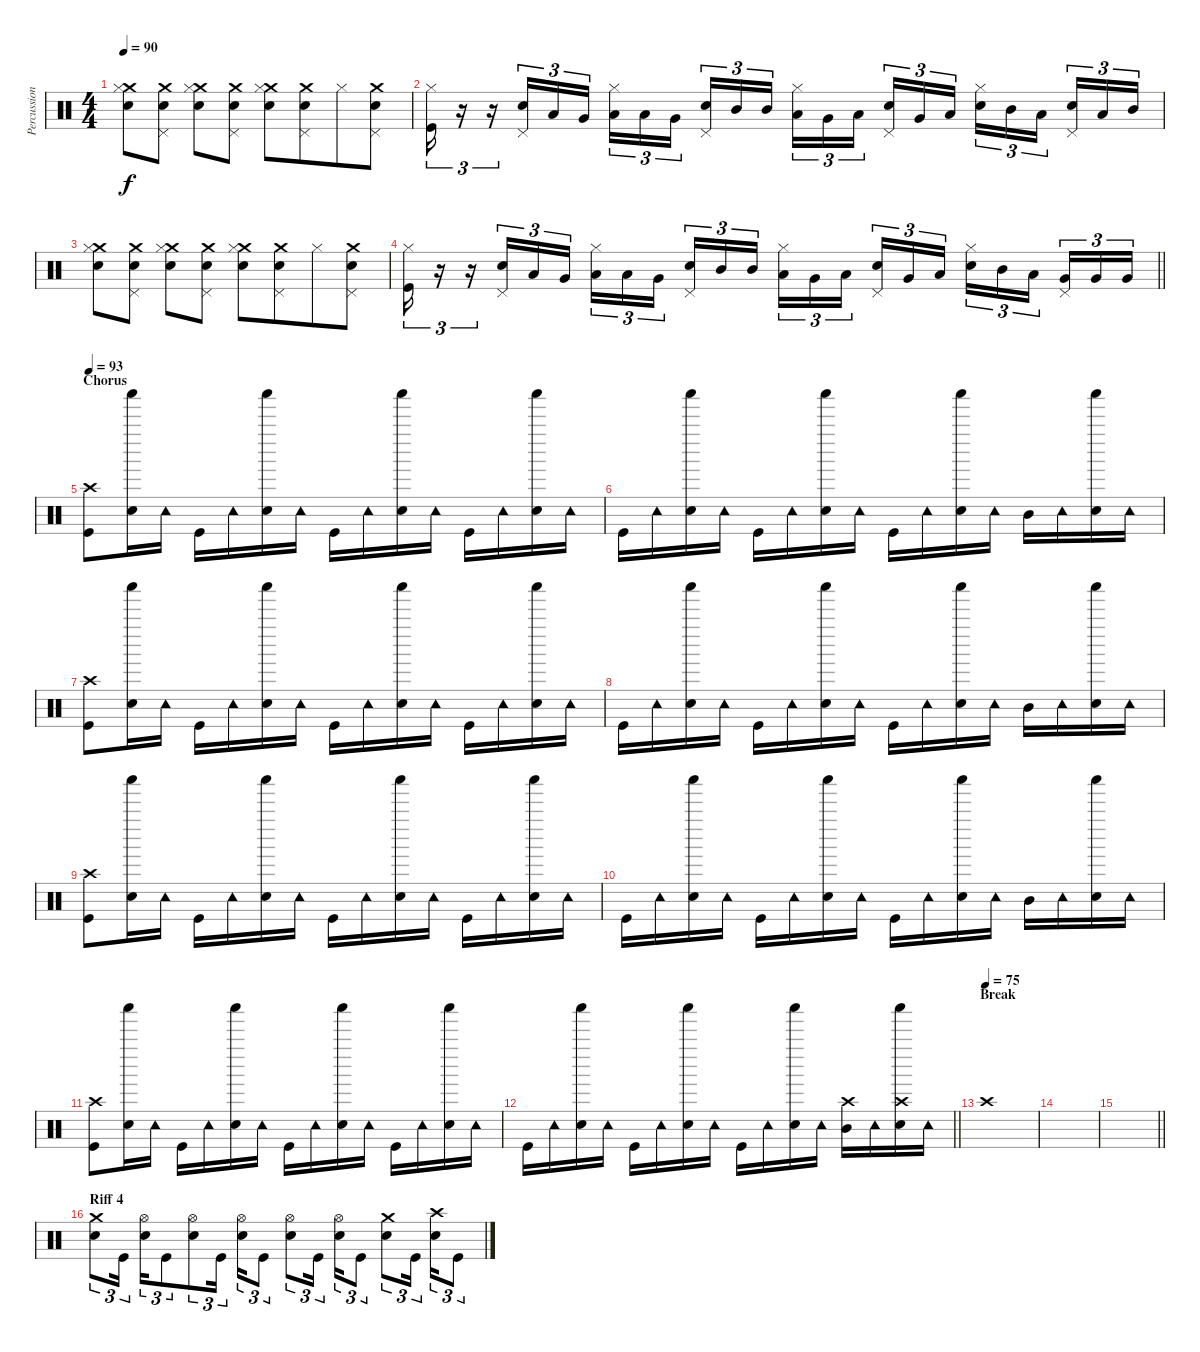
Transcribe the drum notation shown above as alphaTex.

\track ("Percussion" "Percussion") {instrument percussion}
\staff {score}
\articulation defaults
\ts (4 4)
\tempo 90
\clef neutral
\ks c
("Crash medium (hit)" "Hi-Hat (closed)" "Snare (hit) 2").8{dy f} ("Crash medium (hit)" "Pedal Hi-Hat (hit)" "Snare (hit) 2").8 ("Crash medium (hit)" "Hi-Hat (closed)" "Snare (hit) 2").8{beam merge} ("Crash medium (hit)" "Pedal Hi-Hat (hit)" "Snare (hit) 2").8 ("Crash medium (hit)" "Hi-Hat (closed)" "Snare (hit) 2").8 ("Crash medium (hit)" "Pedal Hi-Hat (hit)" "Snare (hit) 2").8{beam merge} "Hi-Hat (closed)".8 ("Crash medium (hit)" "Pedal Hi-Hat (hit)" "Snare (hit) 2").8 |
("Hi-Hat (closed)" "Kick (hit)").16{tu (3 2)} r.16{tu (3 2)} r.16{tu (3 2)} ("Pedal Hi-Hat (hit)" "Snare (hit) 2").16{tu (3 2) beam merge} "Low Tom (hit)".16{tu (3 2)} "Very Low Tom (hit)".16{tu (3 2)} ("Hi-Hat (closed)" "Low Floor Tom (hit)").16{tu (3 2) beam merge} "Low Floor Tom (hit)".16{tu (3 2)} "Very Low Tom (hit)".16{tu (3 2) beam splitsecondary} ("Pedal Hi-Hat (hit)" "Snare (hit) 2").16{tu (3 2)} "Mid Tom (hit)".16{tu (3 2)} "Mid Tom (hit)".16{tu (3 2)} ("Hi-Hat (closed)" "Low Tom (hit)").16{tu (3 2)} "Very Low Tom (hit)".16{tu (3 2)} "Low Floor Tom (hit)".16{tu (3 2) beam splitsecondary} ("Pedal Hi-Hat (hit)" "Snare (hit) 2").16{tu (3 2)} "Very Low Tom (hit)".16{tu (3 2) beam merge} "Low Tom (hit)".16{tu (3 2)} ("Hi-Hat (closed)" "Snare (hit) 2").16{tu (3 2)} "Mid Tom (hit)".16{tu (3 2)} "Low Tom (hit)".16{tu (3 2) beam splitsecondary} ("Pedal Hi-Hat (hit)" "Snare (hit) 2").16{tu (3 2)} "Low Tom (hit)".16{tu (3 2)} "Mid Tom (hit)".16{tu (3 2)} |
("Crash medium (hit)" "Hi-Hat (closed)" "Snare (hit) 2").8 ("Crash medium (hit)" "Pedal Hi-Hat (hit)" "Snare (hit) 2").8 ("Crash medium (hit)" "Hi-Hat (closed)" "Snare (hit) 2").8{beam merge} ("Crash medium (hit)" "Pedal Hi-Hat (hit)" "Snare (hit) 2").8 ("Crash medium (hit)" "Hi-Hat (closed)" "Snare (hit) 2").8 ("Crash medium (hit)" "Pedal Hi-Hat (hit)" "Snare (hit) 2").8{beam merge} "Hi-Hat (closed)".8 ("Crash medium (hit)" "Pedal Hi-Hat (hit)" "Snare (hit) 2").8 |
\barLineRight lightlight
("Hi-Hat (closed)" "Kick (hit)").16{tu (3 2)} r.16{tu (3 2)} r.16{tu (3 2)} ("Pedal Hi-Hat (hit)" "Snare (hit) 2").16{tu (3 2) beam merge} "Low Tom (hit)".16{tu (3 2)} "Very Low Tom (hit)".16{tu (3 2)} ("Hi-Hat (closed)" "Low Floor Tom (hit)").16{tu (3 2) beam merge} "Low Floor Tom (hit)".16{tu (3 2)} "Very Low Tom (hit)".16{tu (3 2) beam splitsecondary} ("Pedal Hi-Hat (hit)" "Snare (hit) 2").16{tu (3 2)} "Mid Tom (hit)".16{tu (3 2)} "Mid Tom (hit)".16{tu (3 2)} ("Hi-Hat (closed)" "Low Tom (hit)").16{tu (3 2)} "Very Low Tom (hit)".16{tu (3 2)} "Low Floor Tom (hit)".16{tu (3 2) beam splitsecondary} ("Pedal Hi-Hat (hit)" "Snare (hit) 2").16{tu (3 2)} "Very Low Tom (hit)".16{tu (3 2) beam merge} "Low Tom (hit)".16{tu (3 2)} ("Hi-Hat (closed)" "Snare (hit) 2").16{tu (3 2)} "Mid Tom (hit)".16{tu (3 2)} "Low Tom (hit)".16{tu (3 2) beam splitsecondary} ("Pedal Hi-Hat (hit)" "Very Low Tom (hit)").16{tu (3 2)} "Very Low Tom (hit)".16{tu (3 2)} "Very Low Tom (hit)".16{tu (3 2)} |
\section ("" "Chorus")
\tempo 93
("Crash high (hit)" "Kick (hit)").8 ("Shaker (hit)" "Electric Snare (hit)").16 "Tambourine (hit)".16 "Kick (hit)".16 "Tambourine (hit)".16 ("Shaker (hit)" "Electric Snare (hit)").16 "Tambourine (hit)".16 "Kick (hit)".16 "Tambourine (hit)".16 ("Shaker (hit)" "Electric Snare (hit)").16 "Tambourine (hit)".16 "Kick (hit)".16 "Tambourine (hit)".16 ("Shaker (hit)" "Electric Snare (hit)").16 "Tambourine (hit)".16 |
"Kick (hit)".16 "Tambourine (hit)".16 ("Shaker (hit)" "Electric Snare (hit)").16 "Tambourine (hit)".16 "Kick (hit)".16 "Tambourine (hit)".16 ("Shaker (hit)" "Electric Snare (hit)").16 "Tambourine (hit)".16 "Kick (hit)".16 "Tambourine (hit)".16 ("Shaker (hit)" "Electric Snare (hit)").16 "Tambourine (hit)".16 "Mid Tom (hit)".16 "Tambourine (hit)".16 ("Shaker (hit)" "Electric Snare (hit)").16 "Tambourine (hit)".16 |
("Crash high (hit)" "Kick (hit)").8 ("Shaker (hit)" "Electric Snare (hit)").16 "Tambourine (hit)".16 "Kick (hit)".16 "Tambourine (hit)".16 ("Shaker (hit)" "Electric Snare (hit)").16 "Tambourine (hit)".16 "Kick (hit)".16 "Tambourine (hit)".16 ("Shaker (hit)" "Electric Snare (hit)").16 "Tambourine (hit)".16 "Kick (hit)".16 "Tambourine (hit)".16 ("Shaker (hit)" "Electric Snare (hit)").16 "Tambourine (hit)".16 |
"Kick (hit)".16 "Tambourine (hit)".16 ("Shaker (hit)" "Electric Snare (hit)").16 "Tambourine (hit)".16 "Kick (hit)".16 "Tambourine (hit)".16 ("Shaker (hit)" "Electric Snare (hit)").16 "Tambourine (hit)".16 "Kick (hit)".16 "Tambourine (hit)".16 ("Shaker (hit)" "Electric Snare (hit)").16 "Tambourine (hit)".16 "Mid Tom (hit)".16 "Tambourine (hit)".16 ("Shaker (hit)" "Electric Snare (hit)").16 "Tambourine (hit)".16 |
("Crash high (hit)" "Kick (hit)").8 ("Shaker (hit)" "Electric Snare (hit)").16 "Tambourine (hit)".16 "Kick (hit)".16 "Tambourine (hit)".16 ("Shaker (hit)" "Electric Snare (hit)").16 "Tambourine (hit)".16 "Kick (hit)".16 "Tambourine (hit)".16 ("Shaker (hit)" "Electric Snare (hit)").16 "Tambourine (hit)".16 "Kick (hit)".16 "Tambourine (hit)".16 ("Shaker (hit)" "Electric Snare (hit)").16 "Tambourine (hit)".16 |
"Kick (hit)".16 "Tambourine (hit)".16 ("Shaker (hit)" "Electric Snare (hit)").16 "Tambourine (hit)".16 "Kick (hit)".16 "Tambourine (hit)".16 ("Shaker (hit)" "Electric Snare (hit)").16 "Tambourine (hit)".16 "Kick (hit)".16 "Tambourine (hit)".16 ("Shaker (hit)" "Electric Snare (hit)").16 "Tambourine (hit)".16 "Mid Tom (hit)".16 "Tambourine (hit)".16 ("Shaker (hit)" "Electric Snare (hit)").16 "Tambourine (hit)".16 |
("Crash high (hit)" "Kick (hit)").8 ("Shaker (hit)" "Electric Snare (hit)").16 "Tambourine (hit)".16 "Kick (hit)".16 "Tambourine (hit)".16 ("Shaker (hit)" "Electric Snare (hit)").16 "Tambourine (hit)".16 "Kick (hit)".16 "Tambourine (hit)".16 ("Shaker (hit)" "Electric Snare (hit)").16 "Tambourine (hit)".16 "Kick (hit)".16 "Tambourine (hit)".16 ("Shaker (hit)" "Electric Snare (hit)").16 "Tambourine (hit)".16 |
\barLineRight lightlight "Kick (hit)".16 "Tambourine (hit)".16
("Shaker (hit)" "Electric Snare (hit)").16 "Tambourine (hit)".16 "Kick (hit)".16 "Tambourine (hit)".16 ("Shaker (hit)" "Electric Snare (hit)").16 "Tambourine (hit)".16 "Kick (hit)".16 "Tambourine (hit)".16 ("Shaker (hit)" "Electric Snare (hit)").16 "Tambourine (hit)".16 ("Crash high (hit)" "Mid Tom (hit)").16 "Tambourine (hit)".16 ("Shaker (hit)" "Crash high (hit)" "Electric Snare (hit)").16 "Tambourine (hit)".16 |
\section ("" "Break")
\tempo (75)
"Crash high (hit)".1 |
|
\barLineRight lightlight
|
\section ("" "Riff 4")
("Crash medium (hit)" "Snare (hit) 2").8{tu (3 2)} "Kick (hit)".16{tu (3 2) beam splitsecondary} ("Hi-Hat (open)" "Snare (hit) 2").16{tu (3 2)} "Kick (hit)".8{tu (3 2) beam merge} ("Hi-Hat (open)" "Snare (hit) 2").8{tu (3 2)} "Kick (hit)".16{tu (3 2) beam splitsecondary} ("Hi-Hat (open)" "Snare (hit) 2").16{tu (3 2) beam merge} "Kick (hit)".8{tu (3 2)} ("Hi-Hat (open)" "Snare (hit) 2").8{tu (3 2)} "Kick (hit)".16{tu (3 2) beam splitsecondary} ("Hi-Hat (open)" "Snare (hit) 2").16{tu (3 2)} "Kick (hit)".8{tu (3 2)} ("Crash medium (hit)" "Snare (hit) 2").8{tu (3 2)} "Kick (hit)".16{tu (3 2) beam splitsecondary} ("Crash high (hit)" "Snare (hit) 2").16{tu (3 2)} "Kick (hit)".8{tu (3 2)}
